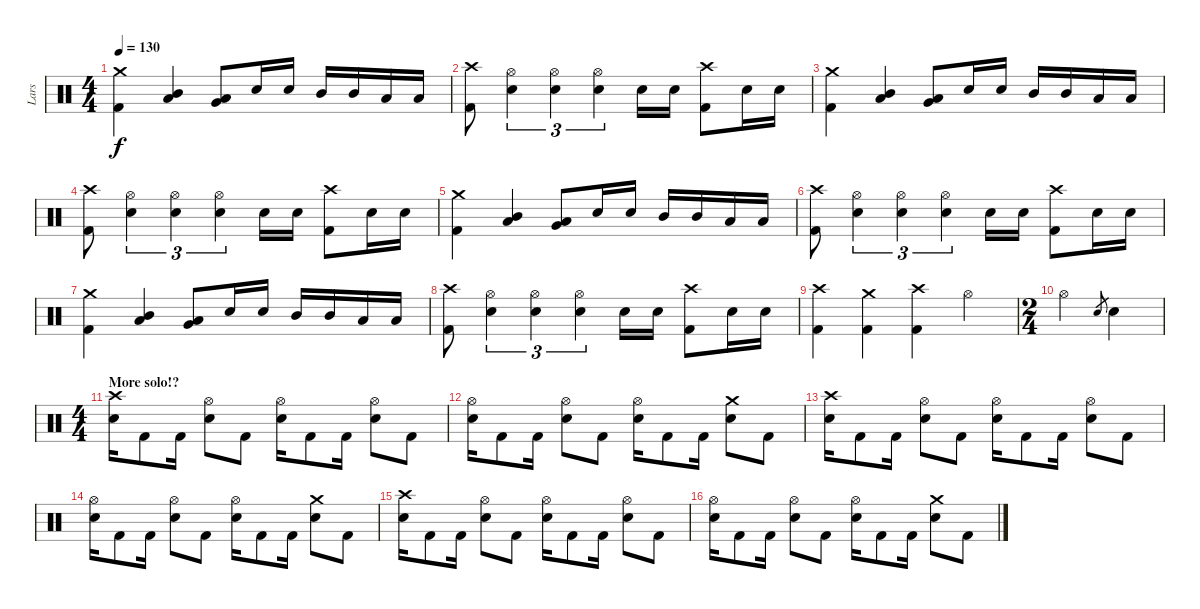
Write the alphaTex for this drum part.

\track ("Lars" "Lars") {instrument percussion}
\staff {score}
\articulation defaults
\ts (4 4)
\tempo 130
\clef neutral
\ks c
("Kick (hit) 2" "Crash medium (hit)").4{dy f} ("Mid Tom (hit)" "Low Tom (hit)").4{bu 120} ("Low Tom (hit)" "Very Low Tom (hit)").8{bu 120} "Electric Snare (hit)".16 "Electric Snare (hit)".16 "Mid Tom (hit)".16 "Mid Tom (hit)".16 "Low Tom (hit)".16 "Low Tom (hit)".16 |
("Kick (hit) 2" "Crash high (hit)").8 ("Electric Snare (hit)" "Hi-Hat (open)").4{tu (3 2)} ("Electric Snare (hit)" "Hi-Hat (open)").4{tu (3 2)} ("Electric Snare (hit)" "Hi-Hat (open)").4{tu (3 2)} "Electric Snare (hit)".16 "Electric Snare (hit)".16 ("Kick (hit) 2" "Crash high (hit)").8 "Electric Snare (hit)".16 "Electric Snare (hit)".16 |
("Kick (hit) 2" "Crash medium (hit)").4 ("Mid Tom (hit)" "Low Tom (hit)").4{bu 120} ("Low Tom (hit)" "Very Low Tom (hit)").8{bu 120} "Electric Snare (hit)".16 "Electric Snare (hit)".16 "Mid Tom (hit)".16 "Mid Tom (hit)".16 "Low Tom (hit)".16 "Low Tom (hit)".16 |
("Kick (hit) 2" "Crash high (hit)").8 ("Electric Snare (hit)" "Hi-Hat (open)").4{tu (3 2)} ("Electric Snare (hit)" "Hi-Hat (open)").4{tu (3 2)} ("Electric Snare (hit)" "Hi-Hat (open)").4{tu (3 2)} "Electric Snare (hit)".16 "Electric Snare (hit)".16 ("Kick (hit) 2" "Crash high (hit)").8 "Electric Snare (hit)".16 "Electric Snare (hit)".16 |
("Kick (hit) 2" "Crash medium (hit)").4 ("Mid Tom (hit)" "Low Tom (hit)").4{bu 120} ("Low Tom (hit)" "Very Low Tom (hit)").8{bu 120} "Electric Snare (hit)".16 "Electric Snare (hit)".16 "Mid Tom (hit)".16 "Mid Tom (hit)".16 "Low Tom (hit)".16 "Low Tom (hit)".16 |
("Kick (hit) 2" "Crash high (hit)").8 ("Electric Snare (hit)" "Hi-Hat (open)").4{tu (3 2)} ("Electric Snare (hit)" "Hi-Hat (open)").4{tu (3 2)} ("Electric Snare (hit)" "Hi-Hat (open)").4{tu (3 2)} "Electric Snare (hit)".16 "Electric Snare (hit)".16 ("Kick (hit) 2" "Crash high (hit)").8 "Electric Snare (hit)".16 "Electric Snare (hit)".16 |
("Kick (hit) 2" "Crash medium (hit)").4 ("Mid Tom (hit)" "Low Tom (hit)").4{bu 120} ("Low Tom (hit)" "Very Low Tom (hit)").8{bu 120} "Electric Snare (hit)".16 "Electric Snare (hit)".16 "Mid Tom (hit)".16 "Mid Tom (hit)".16 "Low Tom (hit)".16 "Low Tom (hit)".16 |
("Kick (hit) 2" "Crash high (hit)").8 ("Electric Snare (hit)" "Hi-Hat (open)").4{tu (3 2)} ("Electric Snare (hit)" "Hi-Hat (open)").4{tu (3 2)} ("Electric Snare (hit)" "Hi-Hat (open)").4{tu (3 2)} "Electric Snare (hit)".16 "Electric Snare (hit)".16 ("Kick (hit) 2" "Crash high (hit)").8 "Electric Snare (hit)".16 "Electric Snare (hit)".16 |
("Kick (hit) 2" "Crash high (hit)").4 ("Kick (hit) 2" "Crash medium (hit)").4 ("Kick (hit) 2" "Crash high (hit)").4 "Hi-Hat (open)".4 |
\ts (2 4)
"Hi-Hat (open)".4 "Electric Snare (hit)".8{gr} "Electric Snare (hit)".4 |
\ts (4 4)
\section ("" "More solo!?")
("Electric Snare (hit)" "Crash high (hit)").16 "Kick (hit) 2".8 "Kick (hit) 2".16 ("Electric Snare (hit)" "Hi-Hat (open)").8 "Kick (hit) 2".8 ("Electric Snare (hit)" "Hi-Hat (open)").16 "Kick (hit) 2".8 "Kick (hit) 2".16 ("Electric Snare (hit)" "Hi-Hat (open)").8 "Kick (hit) 2".8 |
("Electric Snare (hit)" "Hi-Hat (open)").16 "Kick (hit) 2".8 "Kick (hit) 2".16 ("Electric Snare (hit)" "Hi-Hat (open)").8 "Kick (hit) 2".8 ("Electric Snare (hit)" "Hi-Hat (open)").16 "Kick (hit) 2".8 "Kick (hit) 2".16 ("Electric Snare (hit)" "Crash medium (hit)").8 "Kick (hit) 2".8 |
("Electric Snare (hit)" "Crash high (hit)").16 "Kick (hit) 2".8 "Kick (hit) 2".16 ("Electric Snare (hit)" "Hi-Hat (open)").8 "Kick (hit) 2".8 ("Electric Snare (hit)" "Hi-Hat (open)").16 "Kick (hit) 2".8 "Kick (hit) 2".16 ("Electric Snare (hit)" "Hi-Hat (open)").8 "Kick (hit) 2".8 |
("Electric Snare (hit)" "Hi-Hat (open)").16 "Kick (hit) 2".8 "Kick (hit) 2".16 ("Electric Snare (hit)" "Hi-Hat (open)").8 "Kick (hit) 2".8 ("Electric Snare (hit)" "Hi-Hat (open)").16 "Kick (hit) 2".8 "Kick (hit) 2".16 ("Electric Snare (hit)" "Crash medium (hit)").8 "Kick (hit) 2".8 |
("Electric Snare (hit)" "Crash high (hit)").16 "Kick (hit) 2".8 "Kick (hit) 2".16 ("Electric Snare (hit)" "Hi-Hat (open)").8 "Kick (hit) 2".8 ("Electric Snare (hit)" "Hi-Hat (open)").16 "Kick (hit) 2".8 "Kick (hit) 2".16 ("Electric Snare (hit)" "Hi-Hat (open)").8 "Kick (hit) 2".8 |
("Electric Snare (hit)" "Hi-Hat (open)").16 "Kick (hit) 2".8 "Kick (hit) 2".16 ("Electric Snare (hit)" "Hi-Hat (open)").8 "Kick (hit) 2".8 ("Electric Snare (hit)" "Hi-Hat (open)").16 "Kick (hit) 2".8 "Kick (hit) 2".16 ("Electric Snare (hit)" "Crash medium (hit)").8 "Kick (hit) 2".8
